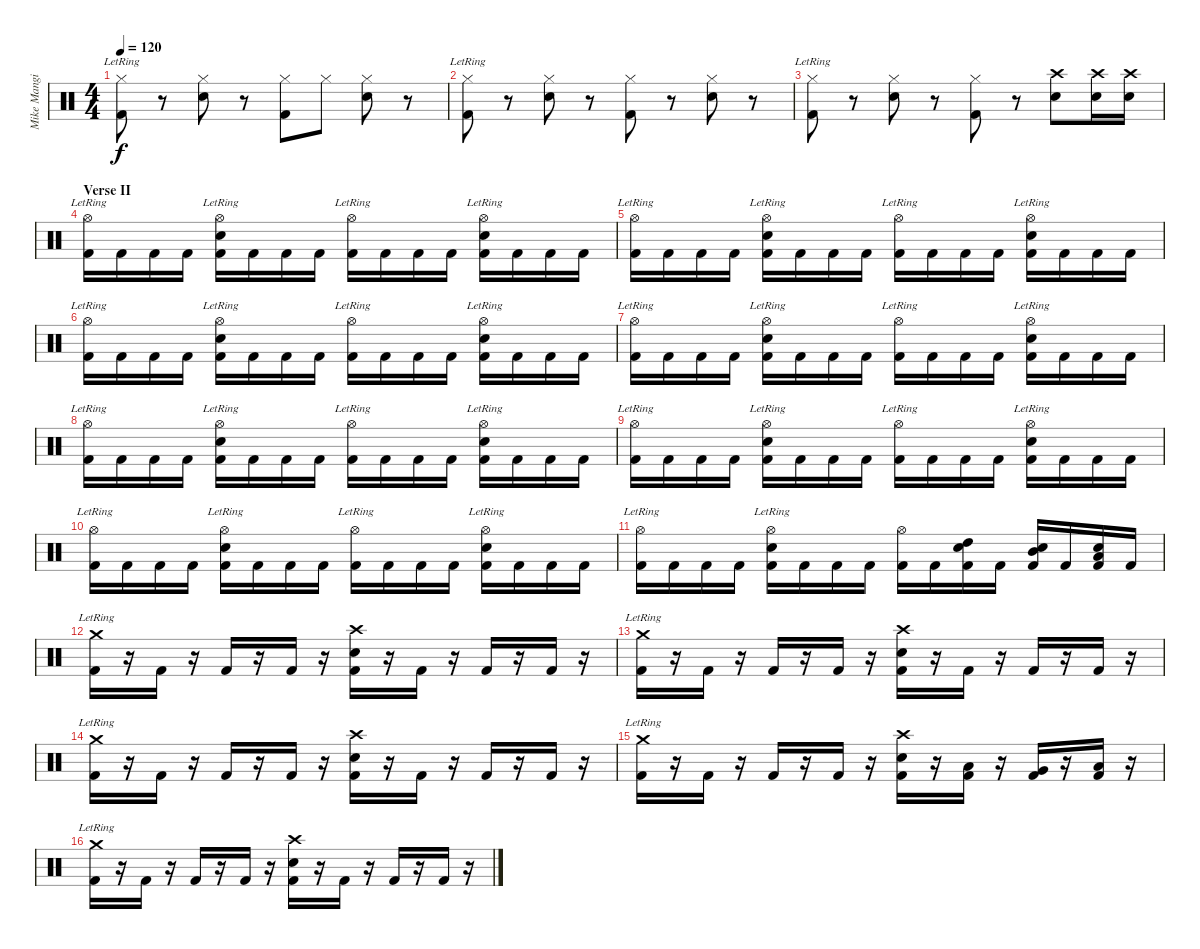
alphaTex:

\track ("Mike Mangini" "Mike Mangi") {instrument percussion}
\staff {score}
\articulation defaults
\ts (4 4)
\tempo 120
\clef neutral
\ks c
("Hi-Hat (closed)" "Kick (hit) 2"{lr}).8{dy f} r.8 ("Hi-Hat (closed)" "Snare (hit) 2").8 r.8 ("Hi-Hat (closed)" "Kick (hit) 2").8 "Hi-Hat (closed)".8 ("Hi-Hat (closed)" "Snare (hit) 2").8 r.8 |
("Hi-Hat (closed)" "Kick (hit) 2"{lr}).8 r.8 ("Hi-Hat (closed)" "Snare (hit) 2").8 r.8 ("Hi-Hat (closed)" "Kick (hit) 2").8 r.8 ("Hi-Hat (closed)" "Snare (hit) 2").8 r.8 |
("Hi-Hat (closed)" "Kick (hit) 2"{lr}).8 r.8 ("Hi-Hat (closed)" "Snare (hit) 2").8 r.8 ("Hi-Hat (closed)" "Kick (hit) 2").8 r.8 ("Crash high (hit)" "Snare (hit) 2").8 ("Crash high (hit)" "Snare (hit) 2").16 ("Crash high (hit)" "Snare (hit) 2").16 |
\section ("" "Verse II")
("Hi-Hat (open)"{lr} "Kick (hit) 2"{lr}).16 "Kick (hit) 2".16 "Kick (hit) 2".16 "Kick (hit) 2".16 ("Hi-Hat (open)"{lr} "Snare (hit) 2"{lr} "Kick (hit) 2").16 "Kick (hit) 2".16 "Kick (hit) 2".16 "Kick (hit) 2".16 ("Hi-Hat (open)"{lr} "Kick (hit) 2").16 "Kick (hit) 2".16 "Kick (hit) 2".16 "Kick (hit) 2".16 ("Hi-Hat (open)"{lr} "Snare (hit) 2"{lr} "Kick (hit) 2").16 "Kick (hit) 2".16 "Kick (hit) 2".16 "Kick (hit) 2".16 |
("Hi-Hat (open)"{lr} "Kick (hit) 2"{lr}).16 "Kick (hit) 2".16 "Kick (hit) 2".16 "Kick (hit) 2".16 ("Hi-Hat (open)"{lr} "Snare (hit) 2"{lr} "Kick (hit) 2").16 "Kick (hit) 2".16 "Kick (hit) 2".16 "Kick (hit) 2".16 ("Hi-Hat (open)"{lr} "Kick (hit) 2").16 "Kick (hit) 2".16 "Kick (hit) 2".16 "Kick (hit) 2".16 ("Hi-Hat (open)"{lr} "Snare (hit) 2"{lr} "Kick (hit) 2").16 "Kick (hit) 2".16 "Kick (hit) 2".16 "Kick (hit) 2".16 |
("Hi-Hat (open)"{lr} "Kick (hit) 2"{lr}).16 "Kick (hit) 2".16 "Kick (hit) 2".16 "Kick (hit) 2".16 ("Hi-Hat (open)"{lr} "Snare (hit) 2"{lr} "Kick (hit) 2").16 "Kick (hit) 2".16 "Kick (hit) 2".16 "Kick (hit) 2".16 ("Hi-Hat (open)"{lr} "Kick (hit) 2").16 "Kick (hit) 2".16 "Kick (hit) 2".16 "Kick (hit) 2".16 ("Hi-Hat (open)"{lr} "Snare (hit) 2"{lr} "Kick (hit) 2").16 "Kick (hit) 2".16 "Kick (hit) 2".16 "Kick (hit) 2".16 |
("Hi-Hat (open)"{lr} "Kick (hit) 2"{lr}).16 "Kick (hit) 2".16 "Kick (hit) 2".16 "Kick (hit) 2".16 ("Hi-Hat (open)"{lr} "Snare (hit) 2"{lr} "Kick (hit) 2").16 "Kick (hit) 2".16 "Kick (hit) 2".16 "Kick (hit) 2".16 ("Hi-Hat (open)"{lr} "Kick (hit) 2").16 "Kick (hit) 2".16 "Kick (hit) 2".16 "Kick (hit) 2".16 ("Hi-Hat (open)"{lr} "Snare (hit) 2"{lr} "Kick (hit) 2").16 "Kick (hit) 2".16 "Kick (hit) 2".16 "Kick (hit) 2".16 |
("Hi-Hat (open)"{lr} "Kick (hit) 2"{lr}).16 "Kick (hit) 2".16 "Kick (hit) 2".16 "Kick (hit) 2".16 ("Hi-Hat (open)"{lr} "Snare (hit) 2"{lr} "Kick (hit) 2").16 "Kick (hit) 2".16 "Kick (hit) 2".16 "Kick (hit) 2".16 ("Hi-Hat (open)"{lr} "Kick (hit) 2").16 "Kick (hit) 2".16 "Kick (hit) 2".16 "Kick (hit) 2".16 ("Hi-Hat (open)"{lr} "Snare (hit) 2"{lr} "Kick (hit) 2").16 "Kick (hit) 2".16 "Kick (hit) 2".16 "Kick (hit) 2".16 |
("Hi-Hat (open)"{lr} "Kick (hit) 2"{lr}).16 "Kick (hit) 2".16 "Kick (hit) 2".16 "Kick (hit) 2".16 ("Hi-Hat (open)"{lr} "Snare (hit) 2"{lr} "Kick (hit) 2").16 "Kick (hit) 2".16 "Kick (hit) 2".16 "Kick (hit) 2".16 ("Hi-Hat (open)"{lr} "Kick (hit) 2").16 "Kick (hit) 2".16 "Kick (hit) 2".16 "Kick (hit) 2".16 ("Hi-Hat (open)"{lr} "Snare (hit) 2"{lr} "Kick (hit) 2").16 "Kick (hit) 2".16 "Kick (hit) 2".16 "Kick (hit) 2".16 |
("Hi-Hat (open)"{lr} "Kick (hit) 2"{lr}).16 "Kick (hit) 2".16 "Kick (hit) 2".16 "Kick (hit) 2".16 ("Hi-Hat (open)"{lr} "Snare (hit) 2"{lr} "Kick (hit) 2").16 "Kick (hit) 2".16 "Kick (hit) 2".16 "Kick (hit) 2".16 ("Hi-Hat (open)"{lr} "Kick (hit) 2").16 "Kick (hit) 2".16 "Kick (hit) 2".16 "Kick (hit) 2".16 ("Hi-Hat (open)"{lr} "Snare (hit) 2"{lr} "Kick (hit) 2").16 "Kick (hit) 2".16 "Kick (hit) 2".16 "Kick (hit) 2".16 |
("Hi-Hat (open)"{lr} "Kick (hit) 2"{lr}).16 "Kick (hit) 2".16 "Kick (hit) 2".16 "Kick (hit) 2".16 ("Hi-Hat (open)"{lr} "Snare (hit) 2"{lr} "Kick (hit) 2").16 "Kick (hit) 2".16 "Kick (hit) 2".16 "Kick (hit) 2".16 ("Hi-Hat (open)" "Kick (hit) 2").16 "Kick (hit) 2".16 ("High Tom (hit)" "Snare (hit) 2" "Kick (hit) 2").16 "Kick (hit) 2".16 ("Mid Tom (hit)" "Snare (hit) 2" "Kick (hit) 2").16 "Kick (hit) 2".16 ("Low Tom (hit)" "Snare (hit) 2" "Kick (hit) 2").16 "Kick (hit) 2".16 |
("Crash medium (hit)" "Kick (hit) 2"{lr}).16 r.16 "Kick (hit) 2".16 r.16 "Kick (hit) 2".16 r.16 "Kick (hit) 2".16 r.16 ("Crash high (hit)" "Snare (hit) 2" "Kick (hit) 2").16 r.16 "Kick (hit) 2".16 r.16 "Kick (hit) 2".16 r.16 "Kick (hit) 2".16 r.16 |
("Crash medium (hit)" "Kick (hit) 2"{lr}).16 r.16 "Kick (hit) 2".16 r.16 "Kick (hit) 2".16 r.16 "Kick (hit) 2".16 r.16 ("Crash high (hit)" "Snare (hit) 2" "Kick (hit) 2").16 r.16 "Kick (hit) 2".16 r.16 "Kick (hit) 2".16 r.16 "Kick (hit) 2".16 r.16 |
("Crash medium (hit)" "Kick (hit) 2"{lr}).16 r.16 "Kick (hit) 2".16 r.16 "Kick (hit) 2".16 r.16 "Kick (hit) 2".16 r.16 ("Crash high (hit)" "Snare (hit) 2" "Kick (hit) 2").16 r.16 "Kick (hit) 2".16 r.16 "Kick (hit) 2".16 r.16 "Kick (hit) 2".16 r.16 |
("Crash medium (hit)" "Kick (hit) 2"{lr}).16 r.16 "Kick (hit) 2".16 r.16 "Kick (hit) 2".16 r.16 "Kick (hit) 2".16 r.16 ("Crash high (hit)" "Snare (hit) 2" "Kick (hit) 2").16 r.16 ("Low Floor Tom (hit)" "Kick (hit) 2").16 r.16 ("Very Low Tom (hit)" "Kick (hit) 2").16 r.16 ("Low Tom (hit)" "Kick (hit) 2").16 r.16 |
("Crash medium (hit)" "Kick (hit) 2"{lr}).16 r.16 "Kick (hit) 2".16 r.16 "Kick (hit) 2".16 r.16 "Kick (hit) 2".16 r.16 ("Crash high (hit)" "Snare (hit) 2" "Kick (hit) 2").16 r.16 "Kick (hit) 2".16 r.16 "Kick (hit) 2".16 r.16 "Kick (hit) 2".16 r.16
